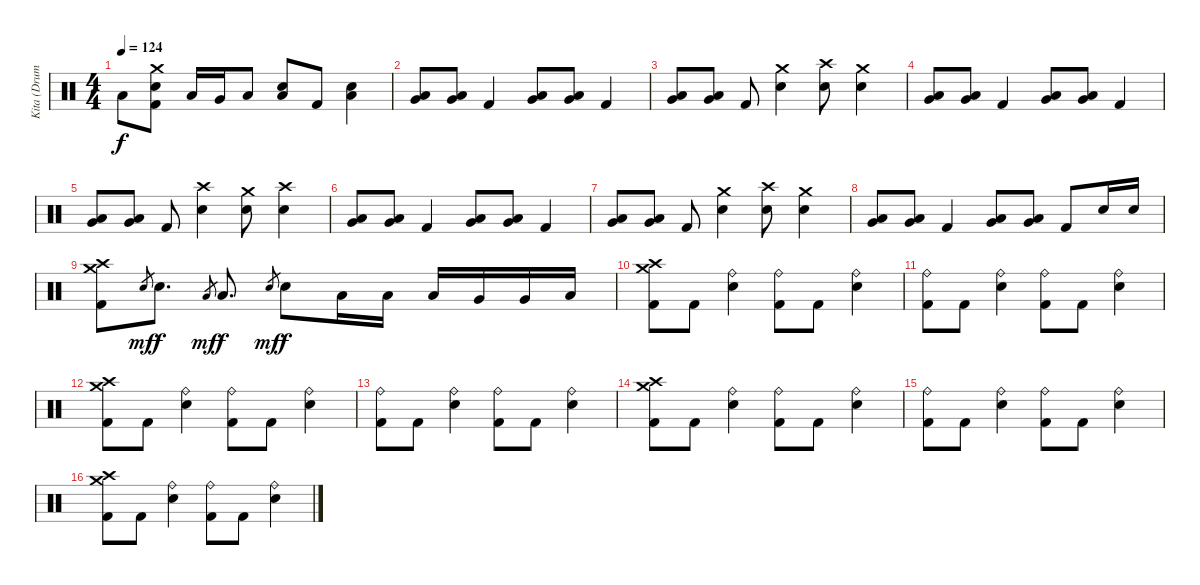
\track ("Kita (Drums)" "Kita (Drum") {instrument percussion}
\staff {score}
\articulation defaults
\ts (4 4)
\tempo 124
\clef neutral
\ks c "Low Floor Tom (hit)".8{dy f}
("Crash medium (hit)" "Electric Snare (hit)" "Kick (hit) 2").8 "Low Floor Tom (hit)".16 "Very Low Tom (hit)".16 "Low Floor Tom (hit)".8 ("Low Floor Tom (hit)" "Electric Snare (hit)").8 "Kick (hit) 2".8 ("Low Floor Tom (hit)" "Electric Snare (hit)").4 |
("Very Low Tom (hit)" "Low Tom (hit)").8{bd 120} ("Very Low Tom (hit)" "Low Tom (hit)").8{bd 120} "Kick (hit) 2".4 ("Low Floor Tom (hit)" "Very Low Tom (hit)").8{bd 120} ("Low Floor Tom (hit)" "Very Low Tom (hit)").8{bd 120} "Kick (hit) 2".4 |
("Very Low Tom (hit)" "Low Tom (hit)").8{bd 120} ("Very Low Tom (hit)" "Low Tom (hit)").8{bd 120} "Kick (hit) 2".8 ("Crash medium (hit)" "Electric Snare (hit)").4 ("Crash high (hit)" "Electric Snare (hit)").8 ("Crash medium (hit)" "Electric Snare (hit)").4 |
("Very Low Tom (hit)" "Low Tom (hit)").8{bd 120} ("Very Low Tom (hit)" "Low Tom (hit)").8{bd 120} "Kick (hit) 2".4 ("Low Floor Tom (hit)" "Very Low Tom (hit)").8{bd 120} ("Low Floor Tom (hit)" "Very Low Tom (hit)").8{bd 120} "Kick (hit) 2".4 |
("Very Low Tom (hit)" "Low Tom (hit)").8{bd 120} ("Very Low Tom (hit)" "Low Tom (hit)").8{bd 120} "Kick (hit) 2".8 ("Crash high (hit)" "Electric Snare (hit)").4 ("Crash medium (hit)" "Electric Snare (hit)").8 ("Crash high (hit)" "Electric Snare (hit)").4 |
("Very Low Tom (hit)" "Low Tom (hit)").8{bd 120} ("Very Low Tom (hit)" "Low Tom (hit)").8{bd 120} "Kick (hit) 2".4 ("Low Floor Tom (hit)" "Very Low Tom (hit)").8{bd 120} ("Low Floor Tom (hit)" "Very Low Tom (hit)").8{bd 120} "Kick (hit) 2".4 |
("Very Low Tom (hit)" "Low Tom (hit)").8{bd 120} ("Very Low Tom (hit)" "Low Tom (hit)").8{bd 120} "Kick (hit) 2".8 ("Crash medium (hit)" "Electric Snare (hit)").4 ("Crash high (hit)" "Electric Snare (hit)").8 ("Crash medium (hit)" "Electric Snare (hit)").4 |
("Very Low Tom (hit)" "Low Tom (hit)").8{bd 120} ("Very Low Tom (hit)" "Low Tom (hit)").8{bd 120} "Kick (hit) 2".4 ("Low Floor Tom (hit)" "Very Low Tom (hit)").8{bd 120} ("Low Floor Tom (hit)" "Very Low Tom (hit)").8{bd 120} "Kick (hit) 2".8 "Electric Snare (hit)".16 "Electric Snare (hit)".16 |
("Crash medium (hit)" "Crash high (hit)" "Kick (hit) 2").8 "Electric Snare (hit)".8{gr dy mf} "Electric Snare (hit)".8{d dy f} "Low Floor Tom (hit)".8{gr dy mf} "Low Floor Tom (hit)".8{d dy f} "Electric Snare (hit)".8{gr dy mf} "Electric Snare (hit)".8{dy f} "Low Tom (hit)".16 "Low Tom (hit)".16 "Low Tom (hit)".16 "Very Low Tom (hit)".16 "Very Low Tom (hit)".16 "Low Floor Tom (hit)".16 |
("Crash medium (hit)" "Crash high (hit)" "Kick (hit) 2").8 "Kick (hit) 2".8 ("Ride (bell)" "Electric Snare (hit)").4 ("Ride (bell)" "Kick (hit) 2").8 "Kick (hit) 2".8 ("Ride (bell)" "Electric Snare (hit)").4 |
("Ride (bell)" "Kick (hit) 2").8 "Kick (hit) 2".8 ("Ride (bell)" "Electric Snare (hit)").4 ("Ride (bell)" "Kick (hit) 2").8 "Kick (hit) 2".8 ("Ride (bell)" "Electric Snare (hit)").4 |
("Crash medium (hit)" "Crash high (hit)" "Kick (hit) 2").8 "Kick (hit) 2".8 ("Ride (bell)" "Electric Snare (hit)").4 ("Ride (bell)" "Kick (hit) 2").8 "Kick (hit) 2".8 ("Ride (bell)" "Electric Snare (hit)").4 |
("Ride (bell)" "Kick (hit) 2").8 "Kick (hit) 2".8 ("Ride (bell)" "Electric Snare (hit)").4 ("Ride (bell)" "Kick (hit) 2").8 "Kick (hit) 2".8 ("Ride (bell)" "Electric Snare (hit)").4 |
("Crash medium (hit)" "Crash high (hit)" "Kick (hit) 2").8 "Kick (hit) 2".8 ("Ride (bell)" "Electric Snare (hit)").4 ("Ride (bell)" "Kick (hit) 2").8 "Kick (hit) 2".8 ("Ride (bell)" "Electric Snare (hit)").4 |
("Ride (bell)" "Kick (hit) 2").8 "Kick (hit) 2".8 ("Ride (bell)" "Electric Snare (hit)").4 ("Ride (bell)" "Kick (hit) 2").8 "Kick (hit) 2".8 ("Ride (bell)" "Electric Snare (hit)").4 |
("Crash medium (hit)" "Crash high (hit)" "Kick (hit) 2").8 "Kick (hit) 2".8 ("Ride (bell)" "Electric Snare (hit)").4 ("Ride (bell)" "Kick (hit) 2").8 "Kick (hit) 2".8 ("Ride (bell)" "Electric Snare (hit)").4
